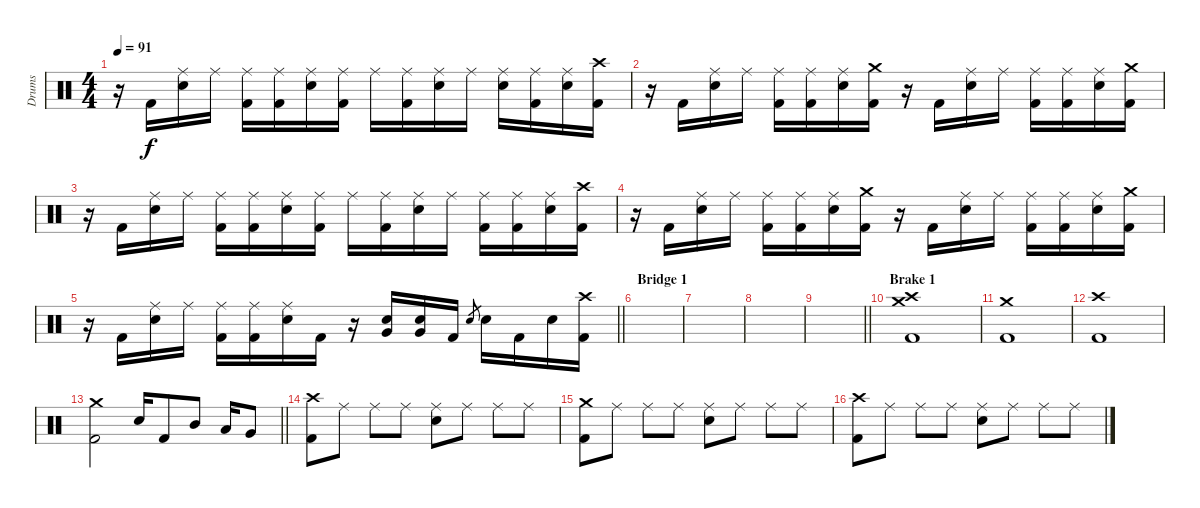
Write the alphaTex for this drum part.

\track ("Drums" "Drums") {instrument percussion}
\staff {score}
\articulation defaults
\ts (4 4)
\tempo 91
\clef neutral
\ks c
r.16{dy f} "Kick (hit) 2".16 ("Ride (middle)" "Snare (hit) 2").16 "Ride (middle)".16 ("Ride (middle)" "Kick (hit) 2").16 ("Ride (middle)" "Kick (hit) 2").16 ("Ride (middle)" "Snare (hit) 2").16 ("Ride (middle)" "Kick (hit) 2").16 "Ride (middle)".16 ("Ride (middle)" "Kick (hit) 2").16 ("Ride (middle)" "Snare (hit) 2").16 "Ride (middle)".16 ("Ride (middle)" "Snare (hit) 2").16 ("Ride (middle)" "Kick (hit) 2").16 ("Ride (middle)" "Snare (hit) 2").16 ("Crash high (hit)" "Kick (hit) 2").16 |
r.16 "Kick (hit) 2".16 ("Ride (middle)" "Snare (hit) 2").16 "Ride (middle)".16 ("Ride (middle)" "Kick (hit) 2").16 ("Ride (middle)" "Kick (hit) 2").16 ("Ride (middle)" "Snare (hit) 2").16 ("Crash medium (hit)" "Kick (hit) 2").16 r.16 "Kick (hit) 2".16 ("Ride (middle)" "Snare (hit) 2").16 "Ride (middle)".16 ("Ride (middle)" "Kick (hit) 2").16 ("Ride (middle)" "Kick (hit) 2").16 ("Ride (middle)" "Snare (hit) 2").16 ("Crash medium (hit)" "Kick (hit) 2").16 |
r.16 "Kick (hit) 2".16 ("Ride (middle)" "Snare (hit) 2").16 "Ride (middle)".16 ("Ride (middle)" "Kick (hit) 2").16 ("Ride (middle)" "Kick (hit) 2").16 ("Ride (middle)" "Snare (hit) 2").16 ("Ride (middle)" "Kick (hit) 2").16 "Ride (middle)".16 ("Ride (middle)" "Kick (hit) 2").16 ("Ride (middle)" "Snare (hit) 2").16 "Ride (middle)".16 ("Ride (middle)" "Kick (hit) 2").16 ("Ride (middle)" "Kick (hit) 2").16 ("Ride (middle)" "Snare (hit) 2").16 ("Crash high (hit)" "Kick (hit) 2").16 |
r.16 "Kick (hit) 2".16 ("Ride (middle)" "Snare (hit) 2").16 "Ride (middle)".16 ("Ride (middle)" "Kick (hit) 2").16 ("Ride (middle)" "Kick (hit) 2").16 ("Ride (middle)" "Snare (hit) 2").16 ("Crash medium (hit)" "Kick (hit) 2").16 r.16 "Kick (hit) 2".16 ("Ride (middle)" "Snare (hit) 2").16 "Ride (middle)".16 ("Ride (middle)" "Kick (hit) 2").16 ("Ride (middle)" "Kick (hit) 2").16 ("Ride (middle)" "Snare (hit) 2").16 ("Crash medium (hit)" "Kick (hit) 2").16 |
\barLineRight lightlight
r.16 "Kick (hit) 2".16 ("Ride (middle)" "Snare (hit) 2").16 "Ride (middle)".16 ("Ride (middle)" "Kick (hit) 2").16 ("Ride (middle)" "Kick (hit) 2").16 ("Ride (middle)" "Snare (hit) 2").16 "Kick (hit) 2".16 r.16 ("Very Low Tom (hit)" "Snare (hit) 2").16 ("Very Low Tom (hit)" "Snare (hit) 2").16 "Kick (hit) 2".16 "Snare (hit) 2".8{gr} "Snare (hit) 2".16 "Kick (hit) 2".16 "Snare (hit) 2".16 ("Crash high (hit)" "Kick (hit) 2").16 |
\section ("" "Bridge 1")
|
|
|
\barLineRight lightlight
|
\section ("" "Brake 1")
("Crash high (hit)" "Crash medium (hit)" "Kick (hit) 2").1 |
("Crash medium (hit)" "Kick (hit) 2").1 |
("Crash high (hit)" "Kick (hit) 2").1 |
\barLineRight lightlight
("Crash medium (hit)" "Kick (hit) 2").2 "Snare (hit) 2".16 "Kick (hit) 2".8 "Mid Tom (hit)".8 "Low Tom (hit)".16 "Very Low Tom (hit)".8 |
("Crash high (hit)" "Kick (hit) 2").8 "Ride (middle)".8 "Ride (middle)".8 "Ride (middle)".8 ("Ride (middle)" "Snare (hit) 2").8 "Ride (middle)".8 "Ride (middle)".8 "Ride (middle)".8 |
("Crash medium (hit)" "Kick (hit) 2").8 "Ride (middle)".8 "Ride (middle)".8 "Ride (middle)".8 ("Ride (middle)" "Snare (hit) 2").8 "Ride (middle)".8 "Ride (middle)".8 "Ride (middle)".8 |
("Crash high (hit)" "Kick (hit) 2").8 "Ride (middle)".8 "Ride (middle)".8 "Ride (middle)".8 ("Ride (middle)" "Snare (hit) 2").8 "Ride (middle)".8 "Ride (middle)".8 "Ride (middle)".8
